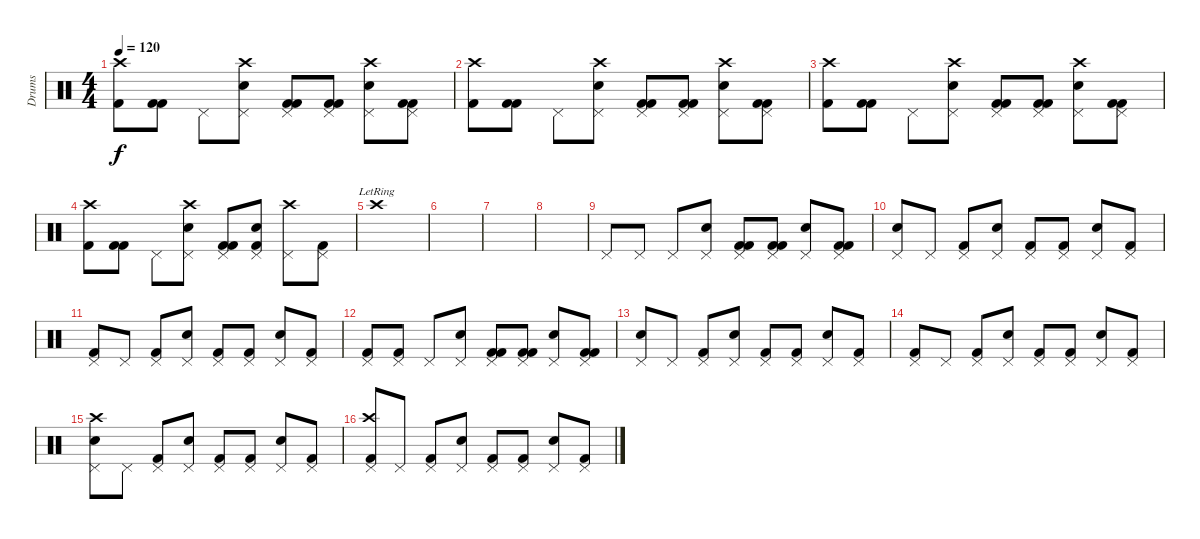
\track ("Drums" "Drums") {instrument percussion}
\staff {score}
\articulation defaults
\ts (4 4)
\tempo 120
\clef neutral
\ks c
("Kick (hit) 2" "Crash high (hit)").8{dy f} ("Kick (hit) 2" "Kick (hit) 2").8 "Pedal Hi-Hat (hit)".8 ("Crash high (hit)" "Snare (hit) 2" "Pedal Hi-Hat (hit)").8 ("Kick (hit) 2" "Kick (hit) 2" "Pedal Hi-Hat (hit)").8 ("Kick (hit) 2" "Kick (hit) 2" "Pedal Hi-Hat (hit)").8 ("Crash high (hit)" "Snare (hit) 2" "Pedal Hi-Hat (hit)").8 ("Kick (hit) 2" "Kick (hit) 2" "Pedal Hi-Hat (hit)").8 |
("Kick (hit) 2" "Crash high (hit)").8 ("Kick (hit) 2" "Kick (hit) 2").8 "Pedal Hi-Hat (hit)".8 ("Crash high (hit)" "Snare (hit) 2" "Pedal Hi-Hat (hit)").8 ("Kick (hit) 2" "Kick (hit) 2" "Pedal Hi-Hat (hit)").8 ("Kick (hit) 2" "Kick (hit) 2" "Pedal Hi-Hat (hit)").8 ("Crash high (hit)" "Snare (hit) 2" "Pedal Hi-Hat (hit)").8 ("Kick (hit) 2" "Kick (hit) 2" "Pedal Hi-Hat (hit)").8 |
("Kick (hit) 2" "Crash high (hit)").8 ("Kick (hit) 2" "Kick (hit) 2").8 "Pedal Hi-Hat (hit)".8 ("Crash high (hit)" "Snare (hit) 2" "Pedal Hi-Hat (hit)").8 ("Kick (hit) 2" "Kick (hit) 2" "Pedal Hi-Hat (hit)").8 ("Kick (hit) 2" "Kick (hit) 2" "Pedal Hi-Hat (hit)").8 ("Crash high (hit)" "Snare (hit) 2" "Pedal Hi-Hat (hit)").8 ("Kick (hit) 2" "Kick (hit) 2" "Pedal Hi-Hat (hit)").8 |
("Kick (hit) 2" "Crash high (hit)").8 ("Kick (hit) 2" "Kick (hit) 2").8 "Pedal Hi-Hat (hit)".8 ("Crash high (hit)" "Snare (hit) 2" "Pedal Hi-Hat (hit)").8 ("Kick (hit) 2" "Kick (hit) 2" "Pedal Hi-Hat (hit)").8 ("Kick (hit) 2" "Snare (hit) 2" "Pedal Hi-Hat (hit)").8 ("Crash high (hit)" "Pedal Hi-Hat (hit)").8 ("Kick (hit) 2" "Pedal Hi-Hat (hit)").8 |
"Crash high (hit)"{lr}.1 |
|
|
|
"Pedal Hi-Hat (hit)".8 "Pedal Hi-Hat (hit)".8 "Pedal Hi-Hat (hit)".8 ("Snare (hit) 2" "Pedal Hi-Hat (hit)").8 ("Kick (hit) 2" "Kick (hit) 2" "Pedal Hi-Hat (hit)").8 ("Kick (hit) 2" "Kick (hit) 2" "Pedal Hi-Hat (hit)").8 ("Snare (hit) 2" "Pedal Hi-Hat (hit)").8 ("Kick (hit) 2" "Kick (hit) 2" "Pedal Hi-Hat (hit)").8 |
("Snare (hit) 2" "Pedal Hi-Hat (hit)").8 "Pedal Hi-Hat (hit)".8 ("Kick (hit) 2" "Pedal Hi-Hat (hit)").8 ("Snare (hit) 2" "Pedal Hi-Hat (hit)").8 ("Kick (hit) 2" "Pedal Hi-Hat (hit)").8 ("Kick (hit) 2" "Pedal Hi-Hat (hit)").8 ("Snare (hit) 2" "Pedal Hi-Hat (hit)").8 ("Kick (hit) 2" "Pedal Hi-Hat (hit)").8 |
("Kick (hit) 2" "Pedal Hi-Hat (hit)").8 "Pedal Hi-Hat (hit)".8 ("Kick (hit) 2" "Pedal Hi-Hat (hit)").8 ("Snare (hit) 2" "Pedal Hi-Hat (hit)").8 ("Kick (hit) 2" "Pedal Hi-Hat (hit)").8 ("Kick (hit) 2" "Pedal Hi-Hat (hit)").8 ("Snare (hit) 2" "Pedal Hi-Hat (hit)").8 ("Kick (hit) 2" "Pedal Hi-Hat (hit)").8 |
("Kick (hit) 2" "Pedal Hi-Hat (hit)").8 ("Kick (hit) 2" "Pedal Hi-Hat (hit)").8 "Pedal Hi-Hat (hit)".8 ("Snare (hit) 2" "Pedal Hi-Hat (hit)").8 ("Kick (hit) 2" "Kick (hit) 2" "Pedal Hi-Hat (hit)").8 ("Kick (hit) 2" "Kick (hit) 2" "Pedal Hi-Hat (hit)").8 ("Snare (hit) 2" "Pedal Hi-Hat (hit)").8 ("Kick (hit) 2" "Kick (hit) 2" "Pedal Hi-Hat (hit)").8 |
("Snare (hit) 2" "Pedal Hi-Hat (hit)").8 "Pedal Hi-Hat (hit)".8 ("Kick (hit) 2" "Pedal Hi-Hat (hit)").8 ("Snare (hit) 2" "Pedal Hi-Hat (hit)").8 ("Kick (hit) 2" "Pedal Hi-Hat (hit)").8 ("Kick (hit) 2" "Pedal Hi-Hat (hit)").8 ("Snare (hit) 2" "Pedal Hi-Hat (hit)").8 ("Kick (hit) 2" "Pedal Hi-Hat (hit)").8 |
("Kick (hit) 2" "Pedal Hi-Hat (hit)").8 "Pedal Hi-Hat (hit)".8 ("Kick (hit) 2" "Pedal Hi-Hat (hit)").8 ("Snare (hit) 2" "Pedal Hi-Hat (hit)").8 ("Kick (hit) 2" "Pedal Hi-Hat (hit)").8 ("Kick (hit) 2" "Pedal Hi-Hat (hit)").8 ("Snare (hit) 2" "Pedal Hi-Hat (hit)").8 ("Kick (hit) 2" "Pedal Hi-Hat (hit)").8 |
("Crash high (hit)" "Snare (hit) 2" "Pedal Hi-Hat (hit)").8 "Pedal Hi-Hat (hit)".8 ("Kick (hit) 2" "Pedal Hi-Hat (hit)").8 ("Snare (hit) 2" "Pedal Hi-Hat (hit)").8 ("Kick (hit) 2" "Pedal Hi-Hat (hit)").8 ("Kick (hit) 2" "Pedal Hi-Hat (hit)").8 ("Snare (hit) 2" "Pedal Hi-Hat (hit)").8 ("Kick (hit) 2" "Pedal Hi-Hat (hit)").8 |
("Crash high (hit)" "Kick (hit) 2" "Pedal Hi-Hat (hit)").8 "Pedal Hi-Hat (hit)".8 ("Kick (hit) 2" "Pedal Hi-Hat (hit)").8 ("Snare (hit) 2" "Pedal Hi-Hat (hit)").8 ("Kick (hit) 2" "Pedal Hi-Hat (hit)").8 ("Kick (hit) 2" "Pedal Hi-Hat (hit)").8 ("Snare (hit) 2" "Pedal Hi-Hat (hit)").8 ("Kick (hit) 2" "Pedal Hi-Hat (hit)").8
